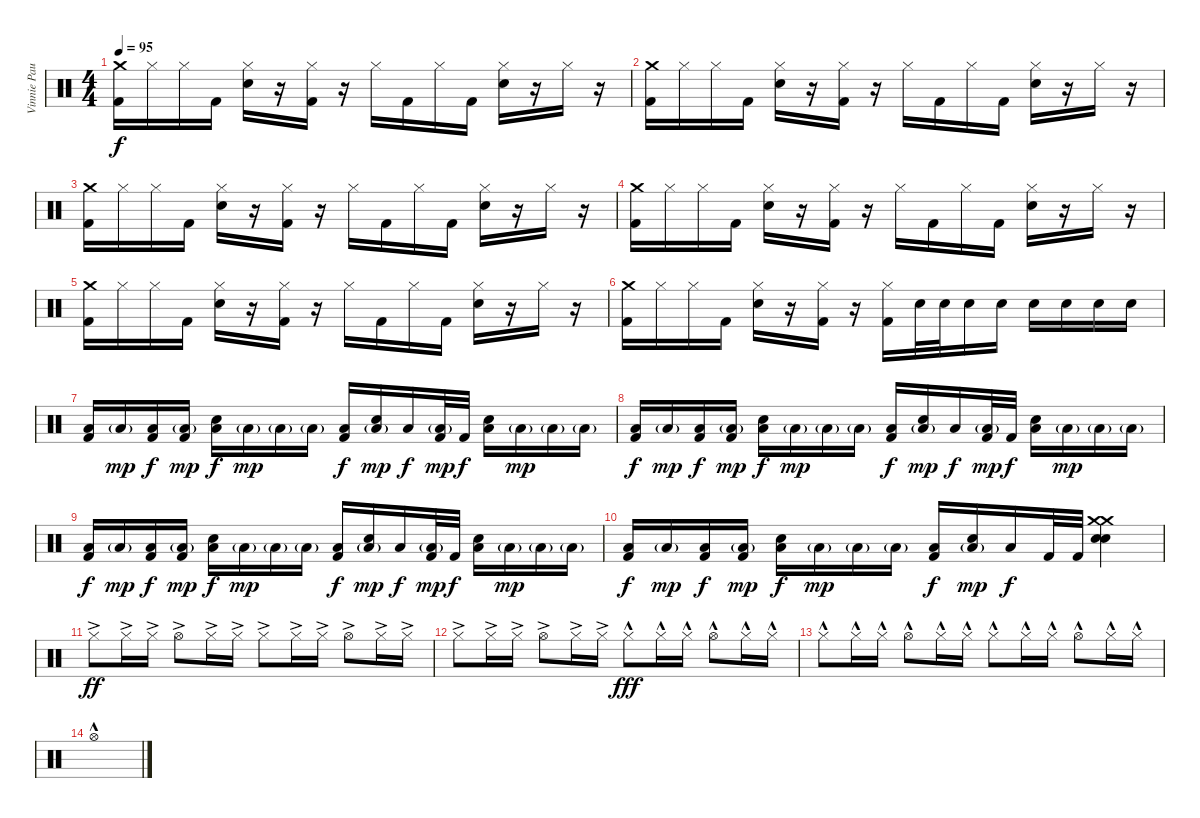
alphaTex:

\track ("Vinnie Paul" "Vinnie Pau") {instrument percussion}
\staff {score}
\articulation defaults
\ts (4 4)
\tempo 95
\clef neutral
\ks c
("Crash medium (hit)" "Kick (hit) 2").16{dy f} "Hi-Hat (closed)".16 "Hi-Hat (closed)".16 "Kick (hit) 2".16 ("Hi-Hat (closed)" "Snare (hit) 2").16 r.16 ("Hi-Hat (closed)" "Kick (hit) 2").16 r.16 "Hi-Hat (closed)".16 "Kick (hit) 2".16 "Hi-Hat (closed)".16 "Kick (hit) 2".16 ("Hi-Hat (closed)" "Snare (hit) 2").16 r.16 "Hi-Hat (closed)".16 r.16 |
("Crash medium (hit)" "Kick (hit) 2").16 "Hi-Hat (closed)".16 "Hi-Hat (closed)".16 "Kick (hit) 2".16 ("Hi-Hat (closed)" "Snare (hit) 2").16 r.16 ("Hi-Hat (closed)" "Kick (hit) 2").16 r.16 "Hi-Hat (closed)".16 "Kick (hit) 2".16 "Hi-Hat (closed)".16 "Kick (hit) 2".16 ("Hi-Hat (closed)" "Snare (hit) 2").16 r.16 "Hi-Hat (closed)".16 r.16 |
("Crash medium (hit)" "Kick (hit) 2").16 "Hi-Hat (closed)".16 "Hi-Hat (closed)".16 "Kick (hit) 2".16 ("Hi-Hat (closed)" "Snare (hit) 2").16 r.16 ("Hi-Hat (closed)" "Kick (hit) 2").16 r.16 "Hi-Hat (closed)".16 "Kick (hit) 2".16 "Hi-Hat (closed)".16 "Kick (hit) 2".16 ("Hi-Hat (closed)" "Snare (hit) 2").16 r.16 "Hi-Hat (closed)".16 r.16 |
("Crash medium (hit)" "Kick (hit) 2").16 "Hi-Hat (closed)".16 "Hi-Hat (closed)".16 "Kick (hit) 2".16 ("Hi-Hat (closed)" "Snare (hit) 2").16 r.16 ("Hi-Hat (closed)" "Kick (hit) 2").16 r.16 "Hi-Hat (closed)".16 "Kick (hit) 2".16 "Hi-Hat (closed)".16 "Kick (hit) 2".16 ("Hi-Hat (closed)" "Snare (hit) 2").16 r.16 "Hi-Hat (closed)".16 r.16 |
("Crash medium (hit)" "Kick (hit) 2").16 "Hi-Hat (closed)".16 "Hi-Hat (closed)".16 "Kick (hit) 2".16 ("Hi-Hat (closed)" "Snare (hit) 2").16 r.16 ("Hi-Hat (closed)" "Kick (hit) 2").16 r.16 "Hi-Hat (closed)".16 "Kick (hit) 2".16 "Hi-Hat (closed)".16 "Kick (hit) 2".16 ("Hi-Hat (closed)" "Snare (hit) 2").16 r.16 "Hi-Hat (closed)".16 r.16 |
("Crash medium (hit)" "Kick (hit) 2").16 "Hi-Hat (closed)".16 "Hi-Hat (closed)".16 "Kick (hit) 2".16 ("Hi-Hat (closed)" "Snare (hit) 2").16 r.16 ("Hi-Hat (closed)" "Kick (hit) 2").16 r.16 ("Hi-Hat (closed)" "Kick (hit) 2").16 "Snare (hit) 2".32 "Snare (hit) 2".32 "Snare (hit) 2".16 "Snare (hit) 2".16 "Snare (hit) 2".16 "Snare (hit) 2".16 "Snare (hit) 2".16 "Snare (hit) 2".16 |
("Low Floor Tom (hit)" "Kick (hit) 2").16 "Low Floor Tom (hit)"{g}.16{dy mp} ("Low Floor Tom (hit)" "Kick (hit) 2").16{dy f} ("Low Floor Tom (hit)"{g} "Kick (hit) 2").16{dy mp} ("Low Floor Tom (hit)" "Snare (hit) 2").16{dy f} "Low Floor Tom (hit)"{g}.16{dy mp} "Low Floor Tom (hit)"{g}.16 "Low Floor Tom (hit)"{g}.16 ("Low Floor Tom (hit)" "Kick (hit) 2").16{dy f} ("Low Floor Tom (hit)"{g} "Snare (hit) 2").16{dy mp} "Low Floor Tom (hit)".16{dy f} ("Low Floor Tom (hit)"{g} "Kick (hit) 2").32{dy mp} "Kick (hit) 2".32{dy f} ("Low Floor Tom (hit)" "Snare (hit) 2").16 "Low Floor Tom (hit)"{g}.16{dy mp} "Low Floor Tom (hit)"{g}.16 "Low Floor Tom (hit)"{g}.16 |
("Low Floor Tom (hit)" "Kick (hit) 2").16{dy f} "Low Floor Tom (hit)"{g}.16{dy mp} ("Low Floor Tom (hit)" "Kick (hit) 2").16{dy f} ("Low Floor Tom (hit)"{g} "Kick (hit) 2").16{dy mp} ("Low Floor Tom (hit)" "Snare (hit) 2").16{dy f} "Low Floor Tom (hit)"{g}.16{dy mp} "Low Floor Tom (hit)"{g}.16 "Low Floor Tom (hit)"{g}.16 ("Low Floor Tom (hit)" "Kick (hit) 2").16{dy f} ("Low Floor Tom (hit)"{g} "Snare (hit) 2").16{dy mp} "Low Floor Tom (hit)".16{dy f} ("Low Floor Tom (hit)"{g} "Kick (hit) 2").32{dy mp} "Kick (hit) 2".32{dy f} ("Low Floor Tom (hit)" "Snare (hit) 2").16 "Low Floor Tom (hit)"{g}.16{dy mp} "Low Floor Tom (hit)"{g}.16 "Low Floor Tom (hit)"{g}.16 |
("Low Floor Tom (hit)" "Kick (hit) 2").16{dy f} "Low Floor Tom (hit)"{g}.16{dy mp} ("Low Floor Tom (hit)" "Kick (hit) 2").16{dy f} ("Low Floor Tom (hit)"{g} "Kick (hit) 2").16{dy mp} ("Low Floor Tom (hit)" "Snare (hit) 2").16{dy f} "Low Floor Tom (hit)"{g}.16{dy mp} "Low Floor Tom (hit)"{g}.16 "Low Floor Tom (hit)"{g}.16 ("Low Floor Tom (hit)" "Kick (hit) 2").16{dy f} ("Low Floor Tom (hit)"{g} "Snare (hit) 2").16{dy mp} "Low Floor Tom (hit)".16{dy f} ("Low Floor Tom (hit)"{g} "Kick (hit) 2").32{dy mp} "Kick (hit) 2".32{dy f} ("Low Floor Tom (hit)" "Snare (hit) 2").16 "Low Floor Tom (hit)"{g}.16{dy mp} "Low Floor Tom (hit)"{g}.16 "Low Floor Tom (hit)"{g}.16 |
("Low Floor Tom (hit)" "Kick (hit) 2").16{dy f} "Low Floor Tom (hit)"{g}.16{dy mp} ("Low Floor Tom (hit)" "Kick (hit) 2").16{dy f} ("Low Floor Tom (hit)"{g} "Kick (hit) 2").16{dy mp} ("Low Floor Tom (hit)" "Snare (hit) 2").16{dy f} "Low Floor Tom (hit)"{g}.16{dy mp} "Low Floor Tom (hit)"{g}.16 "Low Floor Tom (hit)"{g}.16 ("Low Floor Tom (hit)" "Kick (hit) 2").16{dy f} ("Low Floor Tom (hit)"{g} "Snare (hit) 2").16{dy mp} "Low Floor Tom (hit)".16{dy f} "Kick (hit) 2".32 "Kick (hit) 2".32 ("Crash medium (hit)" "Crash medium (hit)" "Snare (hit) 2" "Snare (hit) 2").4 |
"Hi-Hat (closed)"{ac}.8{dy ff} "Hi-Hat (closed)"{ac}.16 "Hi-Hat (closed)"{ac}.16 "Hi-Hat (open)"{ac}.8 "Hi-Hat (closed)"{ac}.16 "Hi-Hat (closed)"{ac}.16 "Hi-Hat (closed)"{ac}.8 "Hi-Hat (closed)"{ac}.16 "Hi-Hat (closed)"{ac}.16 "Hi-Hat (open)"{ac}.8 "Hi-Hat (closed)"{ac}.16 "Hi-Hat (closed)"{ac}.16 |
"Hi-Hat (closed)"{ac}.8 "Hi-Hat (closed)"{ac}.16 "Hi-Hat (closed)"{ac}.16 "Hi-Hat (open)"{ac}.8 "Hi-Hat (closed)"{ac}.16 "Hi-Hat (closed)"{ac}.16 "Hi-Hat (closed)"{hac}.8{dy fff} "Hi-Hat (closed)"{hac}.16 "Hi-Hat (closed)"{hac}.16 "Hi-Hat (open)"{hac}.8 "Hi-Hat (closed)"{hac}.16 "Hi-Hat (closed)"{hac}.16 |
"Hi-Hat (closed)"{hac}.8 "Hi-Hat (closed)"{hac}.16 "Hi-Hat (closed)"{hac}.16 "Hi-Hat (open)"{hac}.8 "Hi-Hat (closed)"{hac}.16 "Hi-Hat (closed)"{hac}.16 "Hi-Hat (closed)"{hac}.8 "Hi-Hat (closed)"{hac}.16 "Hi-Hat (closed)"{hac}.16 "Hi-Hat (open)"{hac}.8 "Hi-Hat (closed)"{hac}.16 "Hi-Hat (closed)"{hac}.16 |
"Hi-Hat (open)"{hac}.1
